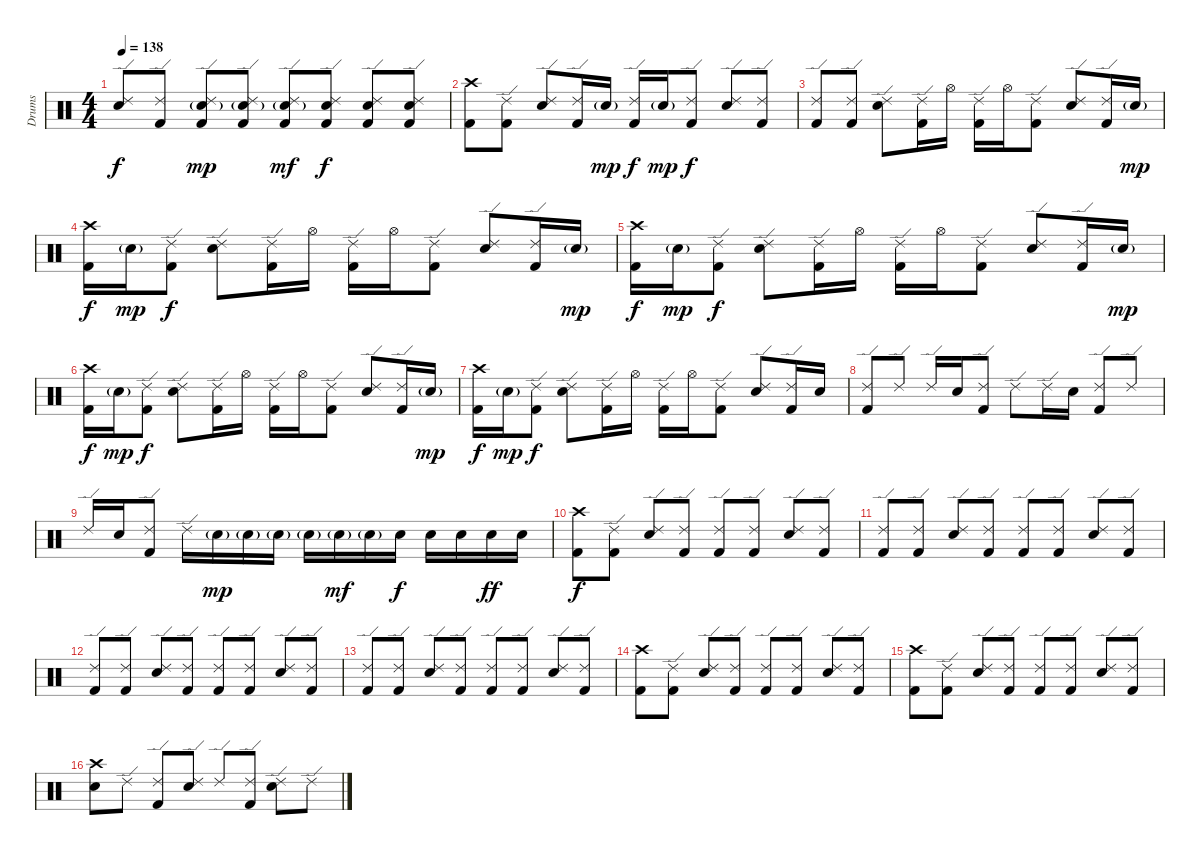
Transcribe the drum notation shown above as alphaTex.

\track ("Drums" "Drums") {instrument percussion}
\staff {score}
\articulation defaults
\ts (4 4)
\tempo 138
\clef neutral
\ks c
("Ride (edge) 2" "Snare (hit) 2").8{dy f} ("Ride (edge) 2" "Kick (hit) 2").8 ("Ride (edge) 2" "Snare (hit) 2"{g} "Kick (hit) 2").8{dy mp} ("Ride (edge) 2" "Snare (hit) 2"{g} "Kick (hit) 2").8 ("Ride (edge) 2" "Snare (hit) 2"{g} "Kick (hit) 2").8{dy mf} ("Ride (edge) 2" "Snare (hit) 2" "Kick (hit) 2").8{dy f} ("Ride (edge) 2" "Snare (hit) 2" "Kick (hit) 2").8 ("Ride (edge) 2" "Snare (hit) 2" "Kick (hit) 2").8 |
("Crash high (hit)" "Kick (hit) 2").8 ("Ride (edge) 2" "Kick (hit) 2").8 ("Ride (edge) 2" "Snare (hit) 2").8 ("Ride (edge) 2" "Kick (hit) 2").16 "Snare (hit) 2"{g}.16{dy mp} ("Ride (edge) 2" "Kick (hit) 2").16{dy f} "Snare (hit) 2"{g}.16{dy mp} ("Ride (edge) 2" "Kick (hit) 2").8{dy f} ("Ride (edge) 2" "Snare (hit) 2").8 ("Ride (edge) 2" "Kick (hit) 2").8 |
("Ride (edge) 2" "Kick (hit) 2").8 ("Ride (edge) 2" "Kick (hit) 2").8 ("Ride (edge) 2" "Snare (hit) 2").8 ("Ride (edge) 2" "Kick (hit) 2").16 "Hi-Hat (open)".16 ("Ride (edge) 2" "Kick (hit) 2").16 "Hi-Hat (open)".16 ("Ride (edge) 2" "Kick (hit) 2").8 ("Ride (edge) 2" "Snare (hit) 2").8 ("Ride (edge) 2" "Kick (hit) 2").16 "Snare (hit) 2"{g}.16{dy mp} |
("Crash high (hit)" "Kick (hit) 2").16{dy f} "Snare (hit) 2"{g}.16{dy mp} ("Ride (edge) 2" "Kick (hit) 2").8{dy f} ("Ride (edge) 2" "Snare (hit) 2").8 ("Ride (edge) 2" "Kick (hit) 2").16 "Hi-Hat (open)".16 ("Ride (edge) 2" "Kick (hit) 2").16 "Hi-Hat (open)".16 ("Ride (edge) 2" "Kick (hit) 2").8 ("Ride (edge) 2" "Snare (hit) 2").8 ("Ride (edge) 2" "Kick (hit) 2").16 "Snare (hit) 2"{g}.16{dy mp} |
("Crash high (hit)" "Kick (hit) 2").16{dy f} "Snare (hit) 2"{g}.16{dy mp} ("Ride (edge) 2" "Kick (hit) 2").8{dy f} ("Ride (edge) 2" "Snare (hit) 2").8 ("Ride (edge) 2" "Kick (hit) 2").16 "Hi-Hat (open)".16 ("Ride (edge) 2" "Kick (hit) 2").16 "Hi-Hat (open)".16 ("Ride (edge) 2" "Kick (hit) 2").8 ("Ride (edge) 2" "Snare (hit) 2").8 ("Ride (edge) 2" "Kick (hit) 2").16 "Snare (hit) 2"{g}.16{dy mp} |
("Crash high (hit)" "Kick (hit) 2").16{dy f} "Snare (hit) 2"{g}.16{dy mp} ("Ride (edge) 2" "Kick (hit) 2").8{dy f} ("Ride (edge) 2" "Snare (hit) 2").8 ("Ride (edge) 2" "Kick (hit) 2").16 "Hi-Hat (open)".16 ("Ride (edge) 2" "Kick (hit) 2").16 "Hi-Hat (open)".16 ("Ride (edge) 2" "Kick (hit) 2").8 ("Ride (edge) 2" "Snare (hit) 2").8 ("Ride (edge) 2" "Kick (hit) 2").16 "Snare (hit) 2"{g}.16{dy mp} |
("Crash high (hit)" "Kick (hit) 2").16{dy f} "Snare (hit) 2"{g}.16{dy mp} ("Ride (edge) 2" "Kick (hit) 2").8{dy f} ("Ride (edge) 2" "Snare (hit) 2").8 ("Ride (edge) 2" "Kick (hit) 2").16 "Hi-Hat (open)".16 ("Ride (edge) 2" "Kick (hit) 2").16 "Hi-Hat (open)".16 ("Ride (edge) 2" "Kick (hit) 2").8 ("Ride (edge) 2" "Snare (hit) 2").8 ("Ride (edge) 2" "Kick (hit) 2").16 "Snare (hit) 2".16 |
("Ride (edge) 2" "Kick (hit) 2").8 "Ride (edge) 2".8 "Ride (edge) 2".16 "Snare (hit) 2".16 ("Ride (edge) 2" "Kick (hit) 2").8 "Ride (edge) 2".8 "Ride (edge) 2".16 "Snare (hit) 2".16 ("Ride (edge) 2" "Kick (hit) 2").8 "Ride (edge) 2".8 |
"Ride (edge) 2".16 "Snare (hit) 2".16 ("Ride (edge) 2" "Kick (hit) 2").8 "Ride (edge) 2".16 "Snare (hit) 2"{g}.16{dy mp} "Snare (hit) 2"{g}.16 "Snare (hit) 2"{g}.16 "Snare (hit) 2"{g}.16 "Snare (hit) 2"{g}.16{dy mf} "Snare (hit) 2"{g}.16 "Snare (hit) 2".16{dy f} "Snare (hit) 2".16 "Snare (hit) 2".16 "Snare (hit) 2".16{dy ff} "Snare (hit) 2".16 |
("Crash high (hit)" "Kick (hit) 2").8{dy f} ("Ride (edge) 2" "Kick (hit) 2").8 ("Ride (edge) 2" "Snare (hit) 2").8 ("Ride (edge) 2" "Kick (hit) 2").8 ("Ride (edge) 2" "Kick (hit) 2").8 ("Ride (edge) 2" "Kick (hit) 2").8 ("Ride (edge) 2" "Snare (hit) 2").8 ("Ride (edge) 2" "Kick (hit) 2").8 |
("Ride (edge) 2" "Kick (hit) 2").8 ("Ride (edge) 2" "Kick (hit) 2").8 ("Ride (edge) 2" "Snare (hit) 2").8 ("Ride (edge) 2" "Kick (hit) 2").8 ("Ride (edge) 2" "Kick (hit) 2").8 ("Ride (edge) 2" "Kick (hit) 2").8 ("Ride (edge) 2" "Snare (hit) 2").8 ("Ride (edge) 2" "Kick (hit) 2").8 |
("Ride (edge) 2" "Kick (hit) 2").8 ("Ride (edge) 2" "Kick (hit) 2").8 ("Ride (edge) 2" "Snare (hit) 2").8 ("Ride (edge) 2" "Kick (hit) 2").8 ("Ride (edge) 2" "Kick (hit) 2").8 ("Ride (edge) 2" "Kick (hit) 2").8 ("Ride (edge) 2" "Snare (hit) 2").8 ("Ride (edge) 2" "Kick (hit) 2").8 |
("Ride (edge) 2" "Kick (hit) 2").8 ("Ride (edge) 2" "Kick (hit) 2").8 ("Ride (edge) 2" "Snare (hit) 2").8 ("Ride (edge) 2" "Kick (hit) 2").8 ("Ride (edge) 2" "Kick (hit) 2").8 ("Ride (edge) 2" "Kick (hit) 2").8 ("Ride (edge) 2" "Snare (hit) 2").8 ("Ride (edge) 2" "Kick (hit) 2").8 |
("Crash high (hit)" "Kick (hit) 2").8 ("Ride (edge) 2" "Kick (hit) 2").8 ("Ride (edge) 2" "Snare (hit) 2").8 ("Ride (edge) 2" "Kick (hit) 2").8 ("Ride (edge) 2" "Kick (hit) 2").8 ("Ride (edge) 2" "Kick (hit) 2").8 ("Ride (edge) 2" "Snare (hit) 2").8 ("Ride (edge) 2" "Kick (hit) 2").8 |
("Crash high (hit)" "Kick (hit) 2").8 ("Ride (edge) 2" "Kick (hit) 2").8 ("Ride (edge) 2" "Snare (hit) 2").8 ("Ride (edge) 2" "Kick (hit) 2").8 ("Ride (edge) 2" "Kick (hit) 2").8 ("Ride (edge) 2" "Kick (hit) 2").8 ("Ride (edge) 2" "Snare (hit) 2").8 ("Ride (edge) 2" "Kick (hit) 2").8 |
("Crash high (hit)" "Snare (hit) 2").8 "Ride (edge) 2".8 ("Ride (edge) 2" "Kick (hit) 2").8 ("Ride (edge) 2" "Snare (hit) 2").8 "Ride (edge) 2".8 ("Ride (edge) 2" "Kick (hit) 2").8 ("Ride (edge) 2" "Snare (hit) 2").8 "Ride (edge) 2".8
